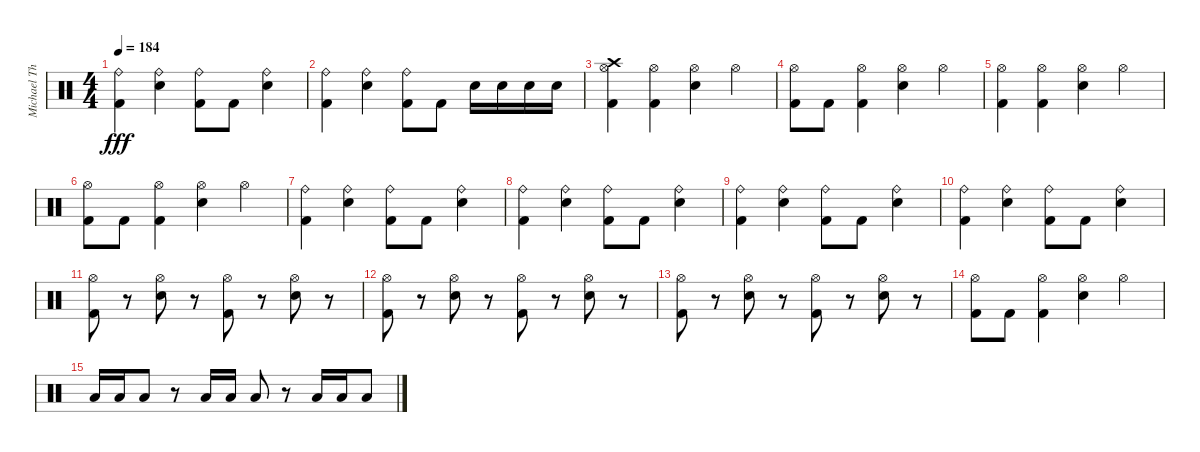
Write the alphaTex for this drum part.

\track ("Michael Thomas" "Michael Th") {instrument percussion}
\staff {score}
\articulation defaults
\ts (4 4)
\tempo 184
\clef neutral
\ks c
("Ride (bell)" "Kick (hit) 2").4{dy fff} ("Ride (bell)" "Snare (hit) 2").4 ("Ride (bell)" "Kick (hit) 2").8 "Kick (hit) 2".8 ("Ride (bell)" "Snare (hit) 2").4 |
("Ride (bell)" "Kick (hit) 2").4 ("Ride (bell)" "Snare (hit) 2").4 ("Ride (bell)" "Kick (hit) 2").8 "Kick (hit) 2".8 "Snare (hit) 2".16 "Snare (hit) 2".16 "Snare (hit) 2".16 "Snare (hit) 2".16 |
("Crash high (hit)" "Hi-Hat (open)" "Kick (hit) 2").4 ("Hi-Hat (open)" "Kick (hit) 2").4 ("Hi-Hat (open)" "Snare (hit) 2").4 "Hi-Hat (open)".4 |
("Hi-Hat (open)" "Kick (hit) 2").8 "Kick (hit) 2".8 ("Hi-Hat (open)" "Kick (hit) 2").4 ("Hi-Hat (open)" "Snare (hit) 2").4 "Hi-Hat (open)".4 |
("Hi-Hat (open)" "Kick (hit) 2").4 ("Hi-Hat (open)" "Kick (hit) 2").4 ("Hi-Hat (open)" "Snare (hit) 2").4 "Hi-Hat (open)".4 |
("Hi-Hat (open)" "Kick (hit) 2").8 "Kick (hit) 2".8 ("Hi-Hat (open)" "Kick (hit) 2").4 ("Hi-Hat (open)" "Snare (hit) 2").4 "Hi-Hat (open)".4 |
("Ride (bell)" "Kick (hit) 2").4 ("Ride (bell)" "Snare (hit) 2").4 ("Ride (bell)" "Kick (hit) 2").8 "Kick (hit) 2".8 ("Ride (bell)" "Snare (hit) 2").4 |
("Ride (bell)" "Kick (hit) 2").4 ("Ride (bell)" "Snare (hit) 2").4 ("Ride (bell)" "Kick (hit) 2").8 "Kick (hit) 2".8 ("Ride (bell)" "Snare (hit) 2").4 |
("Ride (bell)" "Kick (hit) 2").4 ("Ride (bell)" "Snare (hit) 2").4 ("Ride (bell)" "Kick (hit) 2").8 "Kick (hit) 2".8 ("Ride (bell)" "Snare (hit) 2").4 |
("Ride (bell)" "Kick (hit) 2").4 ("Ride (bell)" "Snare (hit) 2").4 ("Ride (bell)" "Kick (hit) 2").8 "Kick (hit) 2".8 ("Ride (bell)" "Snare (hit) 2").4 |
("Hi-Hat (open)" "Kick (hit) 2").8 r.8 ("Hi-Hat (open)" "Snare (hit) 2").8 r.8 ("Hi-Hat (open)" "Kick (hit) 2").8 r.8 ("Hi-Hat (open)" "Snare (hit) 2").8 r.8 |
("Hi-Hat (open)" "Kick (hit) 2").8 r.8 ("Hi-Hat (open)" "Snare (hit) 2").8 r.8 ("Hi-Hat (open)" "Kick (hit) 2").8 r.8 ("Hi-Hat (open)" "Snare (hit) 2").8 r.8 |
("Hi-Hat (open)" "Kick (hit) 2").8 r.8 ("Hi-Hat (open)" "Snare (hit) 2").8 r.8 ("Hi-Hat (open)" "Kick (hit) 2").8 r.8 ("Hi-Hat (open)" "Snare (hit) 2").8 r.8 |
("Hi-Hat (open)" "Kick (hit) 2").8 "Kick (hit) 2".8 ("Hi-Hat (open)" "Kick (hit) 2").4 ("Hi-Hat (open)" "Snare (hit) 2").4 "Hi-Hat (open)".4 |
"Low Floor Tom (hit)".16 "Low Floor Tom (hit)".16 "Low Floor Tom (hit)".8 r.8 "Low Floor Tom (hit)".16 "Low Floor Tom (hit)".16 "Low Floor Tom (hit)".8 r.8 "Low Floor Tom (hit)".16 "Low Floor Tom (hit)".16 "Low Floor Tom (hit)".8
